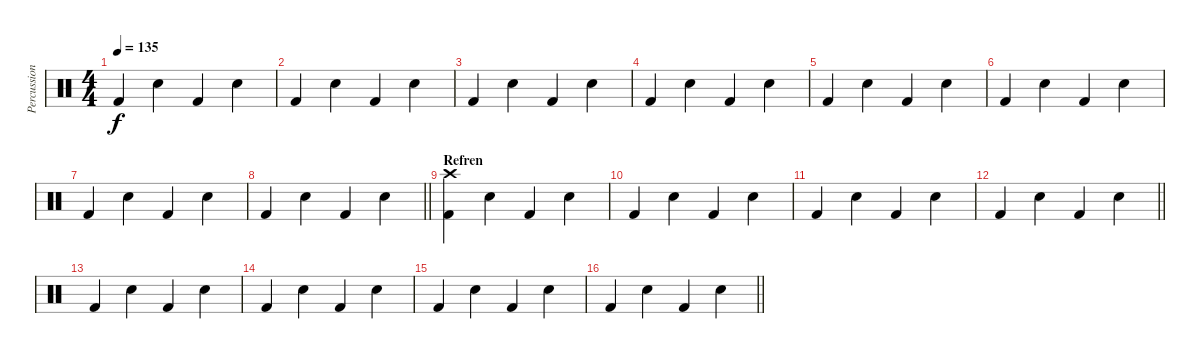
\track ("Percussion" "Percussion") {instrument percussion}
\staff
\articulation defaults
\ts (4 4)
\tempo 135
\clef neutral
\ks c "Kick (hit) 2".4{dy f} "Snare (hit) 2".4 "Kick (hit) 2".4 "Snare (hit) 2".4
|
"Kick (hit) 2".4 "Snare (hit) 2".4 "Kick (hit) 2".4 "Snare (hit) 2".4 |
"Kick (hit) 2".4 "Snare (hit) 2".4 "Kick (hit) 2".4 "Snare (hit) 2".4 |
"Kick (hit) 2".4 "Snare (hit) 2".4 "Kick (hit) 2".4 "Snare (hit) 2".4 |
"Kick (hit) 2".4 "Snare (hit) 2".4 "Kick (hit) 2".4 "Snare (hit) 2".4 |
"Kick (hit) 2".4 "Snare (hit) 2".4 "Kick (hit) 2".4 "Snare (hit) 2".4 |
"Kick (hit) 2".4 "Snare (hit) 2".4 "Kick (hit) 2".4 "Snare (hit) 2".4 |
\barLineRight lightlight "Kick (hit) 2".4 "Snare (hit) 2".4 "Kick (hit) 2".4 "Snare (hit) 2".4
|
\section ("" "Refren")
("Crash high (hit)" "Kick (hit) 2").4 "Snare (hit) 2".4 "Kick (hit) 2".4 "Snare (hit) 2".4 |
"Kick (hit) 2".4 "Snare (hit) 2".4 "Kick (hit) 2".4 "Snare (hit) 2".4 |
"Kick (hit) 2".4 "Snare (hit) 2".4 "Kick (hit) 2".4 "Snare (hit) 2".4 |
\barLineRight lightlight "Kick (hit) 2".4 "Snare (hit) 2".4 "Kick (hit) 2".4 "Snare (hit) 2".4
|
"Kick (hit) 2".4 "Snare (hit) 2".4 "Kick (hit) 2".4 "Snare (hit) 2".4 |
"Kick (hit) 2".4 "Snare (hit) 2".4 "Kick (hit) 2".4 "Snare (hit) 2".4 |
"Kick (hit) 2".4 "Snare (hit) 2".4 "Kick (hit) 2".4 "Snare (hit) 2".4 |
\barLineRight lightlight "Kick (hit) 2".4 "Snare (hit) 2".4 "Kick (hit) 2".4 "Snare (hit) 2".4
